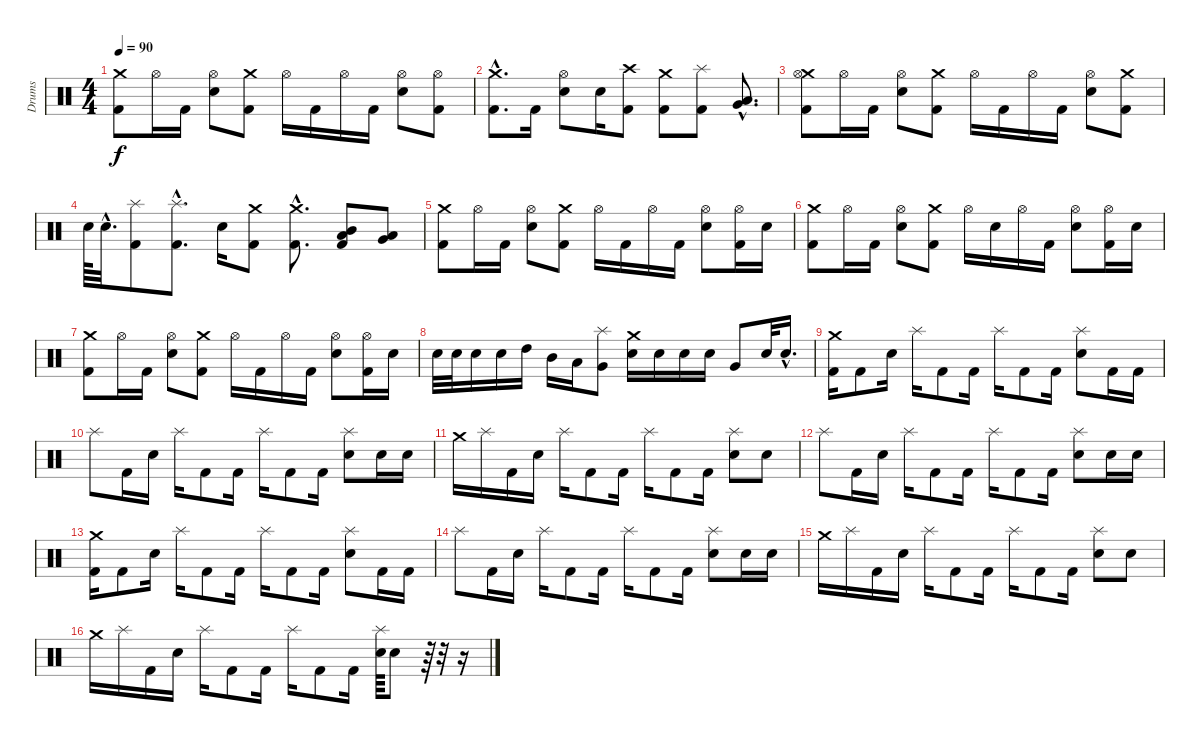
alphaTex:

\track ("Drums" "Drums") {instrument percussion}
\staff {score}
\articulation defaults
\ts (4 4)
\tempo 90
\clef neutral
\ks c
("Crash medium (hit)" "Kick (hit) 2").8{dy f} "Hi-Hat (open)".16 "Kick (hit) 2".16 ("Hi-Hat (open)" "Snare (hit) 2").8 ("Crash medium (hit)" "Kick (hit) 2").8 "Hi-Hat (open)".16 "Kick (hit) 2".16 "Hi-Hat (open)".16 "Kick (hit) 2".16 ("Hi-Hat (open)" "Snare (hit) 2").8 ("Hi-Hat (open)" "Kick (hit) 2").8 |
("Crash medium (hit)"{hac} "Kick (hit) 2"{hac}).8{d} "Kick (hit) 2".16 ("Hi-Hat (open)" "Snare (hit) 2").8 "Snare (hit) 2".16 ("Crash high (hit)" "Kick (hit) 2").8 ("Crash medium (hit)" "Kick (hit) 2").8 ("Splash (hit)" "Kick (hit) 2").8 ("Low Tom (hit)"{hac} "Very Low Tom (hit)"{hac}).8{d} |
("Crash medium (hit)" "Hi-Hat (open)" "Kick (hit) 2").8 "Hi-Hat (open)".16 "Kick (hit) 2".16 ("Hi-Hat (open)" "Snare (hit) 2").8 ("Crash medium (hit)" "Kick (hit) 2").8 "Hi-Hat (open)".16 "Kick (hit) 2".16 "Hi-Hat (open)".16 "Kick (hit) 2".16 ("Hi-Hat (open)" "Snare (hit) 2").8 ("Crash medium (hit)" "Kick (hit) 2").8 |
"Snare (hit) 2".64 "Snare (hit) 2"{hac}.32{d} ("Splash (hit)" "Kick (hit) 2").8 ("Splash (hit)"{hac} "Kick (hit) 2"{hac}).8{d} "Snare (hit) 2".16 ("Crash medium (hit)" "Kick (hit) 2").8 ("Crash medium (hit)"{hac} "Kick (hit) 2"{hac}).8{d} ("Mid Tom (hit)" "Low Tom (hit)" "Kick (hit) 2").8 ("Low Tom (hit)" "Very Low Tom (hit)").8 |
("Crash medium (hit)" "Kick (hit) 2").8 "Hi-Hat (open)".16 "Kick (hit) 2".16 ("Hi-Hat (open)" "Snare (hit) 2").8 ("Crash medium (hit)" "Kick (hit) 2").8 "Hi-Hat (open)".16 "Kick (hit) 2".16 "Hi-Hat (open)".16 "Kick (hit) 2".16 ("Hi-Hat (open)" "Snare (hit) 2").8 ("Hi-Hat (open)" "Kick (hit) 2").16 "Snare (hit) 2".16 |
("Crash medium (hit)" "Kick (hit) 2").8 "Hi-Hat (open)".16 "Kick (hit) 2".16 ("Hi-Hat (open)" "Snare (hit) 2").8 ("Crash medium (hit)" "Kick (hit) 2").8 "Hi-Hat (open)".16 "Snare (hit) 2".16 "Hi-Hat (open)".16 "Kick (hit) 2".16 ("Hi-Hat (open)" "Snare (hit) 2").8 ("Hi-Hat (open)" "Kick (hit) 2").16 "Snare (hit) 2".16 |
("Crash medium (hit)" "Kick (hit) 2").8 "Hi-Hat (open)".16 "Kick (hit) 2".16 ("Hi-Hat (open)" "Snare (hit) 2").8 ("Crash medium (hit)" "Kick (hit) 2").8 "Hi-Hat (open)".16 "Kick (hit) 2".16 "Hi-Hat (open)".16 "Kick (hit) 2".16 ("Hi-Hat (open)" "Snare (hit) 2").8 ("Hi-Hat (open)" "Kick (hit) 2").16 "Snare (hit) 2".16 |
"Snare (hit) 2".32 "Snare (hit) 2".32 "Snare (hit) 2".16 "Snare (hit) 2".16 "High Tom (hit)".16 "Mid Tom (hit)".16 "Low Tom (hit)".16 ("Splash (hit)" "Very Low Tom (hit)").8 ("Crash medium (hit)" "Snare (hit) 2").16 "Snare (hit) 2".16 "Snare (hit) 2".16 "Snare (hit) 2".16 "Very Low Tom (hit)".8 "Snare (hit) 2".32 "Snare (hit) 2"{hac}.16{d} |
("Crash medium (hit)" "Kick (hit) 2").16 "Kick (hit) 2".8 "Snare (hit) 2".16 "Splash (hit)".16 "Kick (hit) 2".8 "Kick (hit) 2".16 "Splash (hit)".16 "Kick (hit) 2".8 "Kick (hit) 2".16 ("Splash (hit)" "Snare (hit) 2").8 "Kick (hit) 2".16 "Kick (hit) 2".16 |
"Splash (hit)".8 "Kick (hit) 2".16 "Snare (hit) 2".16 "Splash (hit)".16 "Kick (hit) 2".8 "Kick (hit) 2".16 "Splash (hit)".16 "Kick (hit) 2".8 "Kick (hit) 2".16 ("Splash (hit)" "Snare (hit) 2").8 "Snare (hit) 2".16 "Snare (hit) 2".16 |
"Crash medium (hit)".16 "Splash (hit)".16 "Kick (hit) 2".16 "Snare (hit) 2".16 "Splash (hit)".16 "Kick (hit) 2".8 "Kick (hit) 2".16 "Splash (hit)".16 "Kick (hit) 2".8 "Kick (hit) 2".16 ("Splash (hit)" "Snare (hit) 2").8 "Snare (hit) 2".8 |
"Splash (hit)".8 "Kick (hit) 2".16 "Snare (hit) 2".16 "Splash (hit)".16 "Kick (hit) 2".8 "Kick (hit) 2".16 "Splash (hit)".16 "Kick (hit) 2".8 "Kick (hit) 2".16 ("Splash (hit)" "Snare (hit) 2").8 "Snare (hit) 2".16 "Snare (hit) 2".16 |
("Crash medium (hit)" "Kick (hit) 2").16 "Kick (hit) 2".8 "Snare (hit) 2".16 "Splash (hit)".16 "Kick (hit) 2".8 "Kick (hit) 2".16 "Splash (hit)".16 "Kick (hit) 2".8 "Kick (hit) 2".16 ("Splash (hit)" "Snare (hit) 2").8 "Kick (hit) 2".16 "Kick (hit) 2".16 |
"Splash (hit)".8 "Kick (hit) 2".16 "Snare (hit) 2".16 "Splash (hit)".16 "Kick (hit) 2".8 "Kick (hit) 2".16 "Splash (hit)".16 "Kick (hit) 2".8 "Kick (hit) 2".16 ("Splash (hit)" "Snare (hit) 2").8 "Snare (hit) 2".16 "Snare (hit) 2".16 |
"Crash medium (hit)".16 "Splash (hit)".16 "Kick (hit) 2".16 "Snare (hit) 2".16 "Splash (hit)".16 "Kick (hit) 2".8 "Kick (hit) 2".16 "Splash (hit)".16 "Kick (hit) 2".8 "Kick (hit) 2".16 ("Splash (hit)" "Snare (hit) 2").8 "Snare (hit) 2".8 |
"Crash medium (hit)".16 "Splash (hit)".16 "Kick (hit) 2".16 "Snare (hit) 2".16 "Splash (hit)".16 "Kick (hit) 2".8 "Kick (hit) 2".16 "Splash (hit)".16 "Kick (hit) 2".8 "Kick (hit) 2".16 ("Splash (hit)" "Snare (hit) 2").64 "Snare (hit) 2".8 r.64 r.32 r.16
